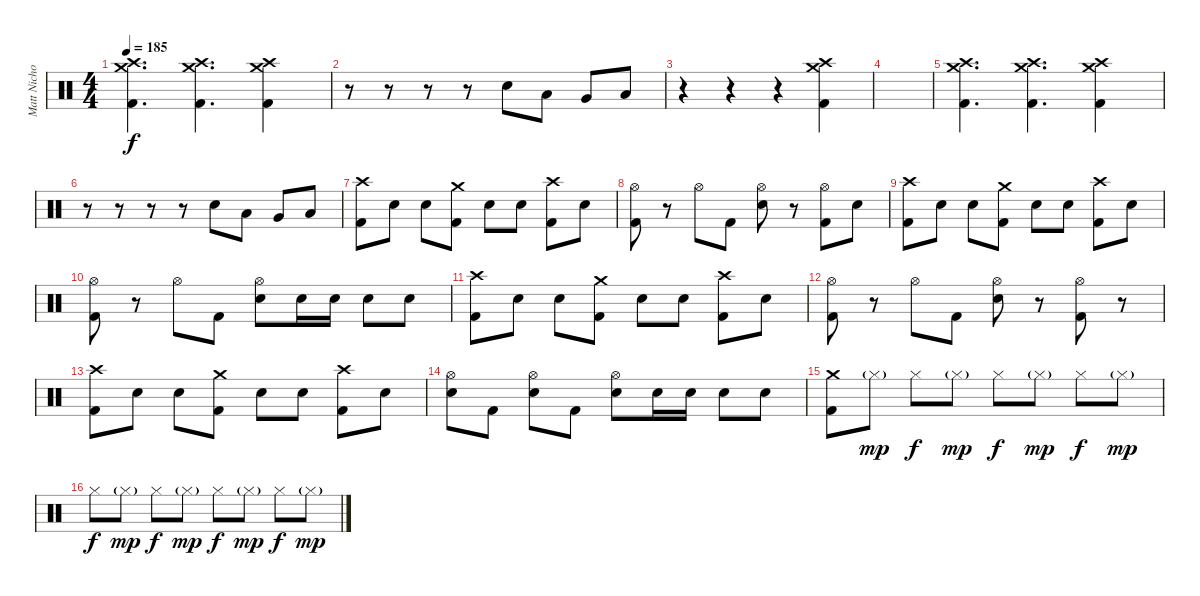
\track ("Matt Nicholls" "Matt Nicho") {instrument percussion}
\staff {score}
\articulation defaults
\ts (4 4)
\tempo 185
\clef neutral
\ks c
("Crash high (hit)" "Crash medium (hit)" "Kick (hit) 2").4{d dy f} ("Crash high (hit)" "Crash medium (hit)" "Kick (hit) 2").4{d} ("Crash high (hit)" "Crash medium (hit)" "Kick (hit) 2").4 |
r.8 r.8 r.8 r.8 "Electric Snare (hit)".8 "Low Tom (hit)".8 "Very Low Tom (hit)".8 "Low Floor Tom (hit)".8 |
r.4 r.4 r.4 ("Crash medium (hit)" "Crash high (hit)" "Kick (hit) 2").4 |
|
("Crash high (hit)" "Crash medium (hit)" "Kick (hit) 2").4{d} ("Crash high (hit)" "Crash medium (hit)" "Kick (hit) 2").4{d} ("Crash high (hit)" "Crash medium (hit)" "Kick (hit) 2").4 |
r.8 r.8 r.8 r.8 "Electric Snare (hit)".8 "Low Tom (hit)".8 "Very Low Tom (hit)".8 "Low Floor Tom (hit)".8 |
("Crash high (hit)" "Kick (hit) 2").8 "Electric Snare (hit)".8 "Electric Snare (hit)".8 ("Crash medium (hit)" "Kick (hit) 2").8 "Electric Snare (hit)".8 "Electric Snare (hit)".8 ("Crash high (hit)" "Kick (hit) 2").8 "Electric Snare (hit)".8 |
("Hi-Hat (open)" "Kick (hit) 2").8 r.8 "Hi-Hat (open)".8 "Kick (hit) 2".8 ("Hi-Hat (open)" "Electric Snare (hit)").8 r.8 ("Hi-Hat (open)" "Kick (hit) 2").8 "Electric Snare (hit)".8 |
("Crash high (hit)" "Kick (hit) 2").8 "Electric Snare (hit)".8 "Electric Snare (hit)".8 ("Crash medium (hit)" "Kick (hit) 2").8 "Electric Snare (hit)".8 "Electric Snare (hit)".8 ("Crash high (hit)" "Kick (hit) 2").8 "Electric Snare (hit)".8 |
("Hi-Hat (open)" "Kick (hit) 2").8 r.8 "Hi-Hat (open)".8 "Kick (hit) 2".8 ("Hi-Hat (open)" "Electric Snare (hit)").8 "Electric Snare (hit)".16 "Electric Snare (hit)".16 "Electric Snare (hit)".8 "Electric Snare (hit)".8 |
("Crash high (hit)" "Kick (hit) 2").8 "Electric Snare (hit)".8 "Electric Snare (hit)".8 ("Crash medium (hit)" "Kick (hit) 2").8 "Electric Snare (hit)".8 "Electric Snare (hit)".8 ("Crash high (hit)" "Kick (hit) 2").8 "Electric Snare (hit)".8 |
("Hi-Hat (open)" "Kick (hit) 2").8 r.8 "Hi-Hat (open)".8 "Kick (hit) 2".8 ("Hi-Hat (open)" "Electric Snare (hit)").8 r.8 ("Hi-Hat (open)" "Kick (hit) 2").8 r.8 |
("Crash high (hit)" "Kick (hit) 2").8 "Electric Snare (hit)".8 "Electric Snare (hit)".8 ("Crash medium (hit)" "Kick (hit) 2").8 "Electric Snare (hit)".8 "Electric Snare (hit)".8 ("Crash high (hit)" "Kick (hit) 2").8 "Electric Snare (hit)".8 |
("Hi-Hat (open)" "Electric Snare (hit)").8 "Kick (hit) 2".8 ("Hi-Hat (open)" "Electric Snare (hit)").8 "Kick (hit) 2".8 ("Hi-Hat (open)" "Electric Snare (hit)").8 "Electric Snare (hit)".16 "Electric Snare (hit)".16 "Electric Snare (hit)".8 "Electric Snare (hit)".8 |
("Crash medium (hit)" "Kick (hit) 2").8 "Hi-Hat (closed)"{g}.8{dy mp} "Hi-Hat (closed)".8{dy f} "Hi-Hat (closed)"{g}.8{dy mp} "Hi-Hat (closed)".8{dy f} "Hi-Hat (closed)"{g}.8{dy mp} "Hi-Hat (closed)".8{dy f} "Hi-Hat (closed)"{g}.8{dy mp} |
"Hi-Hat (closed)".8{dy f} "Hi-Hat (closed)"{g}.8{dy mp} "Hi-Hat (closed)".8{dy f} "Hi-Hat (closed)"{g}.8{dy mp} "Hi-Hat (closed)".8{dy f} "Hi-Hat (closed)"{g}.8{dy mp} "Hi-Hat (closed)".8{dy f} "Hi-Hat (closed)"{g}.8{dy mp}
